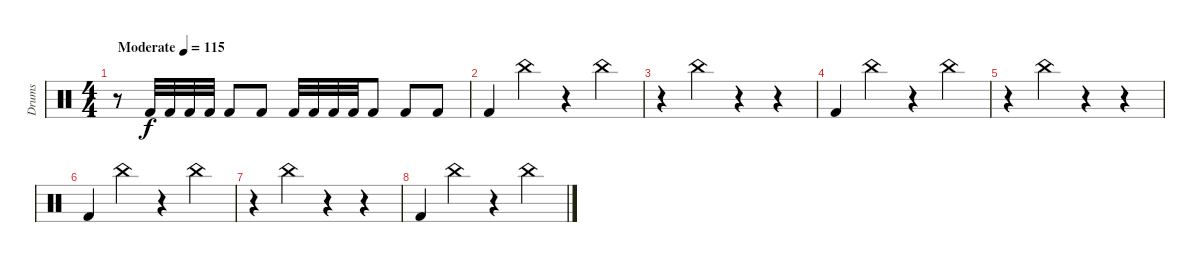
\track ("Drums" "Drums") {instrument percussion}
\staff {score}
\articulation defaults
\ts (4 4)
\tempo (115 "Moderate")
\clef neutral
\ks c
r.8{dy f} "Kick (hit) 2".32 "Kick (hit) 2".32 "Kick (hit) 2".32 "Kick (hit) 2".32 "Kick (hit) 2".8 "Kick (hit) 2".8 "Kick (hit) 2".32 "Kick (hit) 2".32 "Kick (hit) 2".32 "Kick (hit) 2".32 "Kick (hit) 2".8 "Kick (hit) 2".8 "Kick (hit) 2".8 |
"Kick (hit) 2".4 "China (hit)".4 r.4 "China (hit)".4 |
r.4 "China (hit)".4 r.4 r.4 |
"Kick (hit) 2".4 "China (hit)".4 r.4 "China (hit)".4 |
r.4 "China (hit)".4 r.4 r.4 |
"Kick (hit) 2".4 "China (hit)".4 r.4 "China (hit)".4 |
r.4 "China (hit)".4 r.4 r.4 |
"Kick (hit) 2".4 "China (hit)".4 r.4 "China (hit)".4
